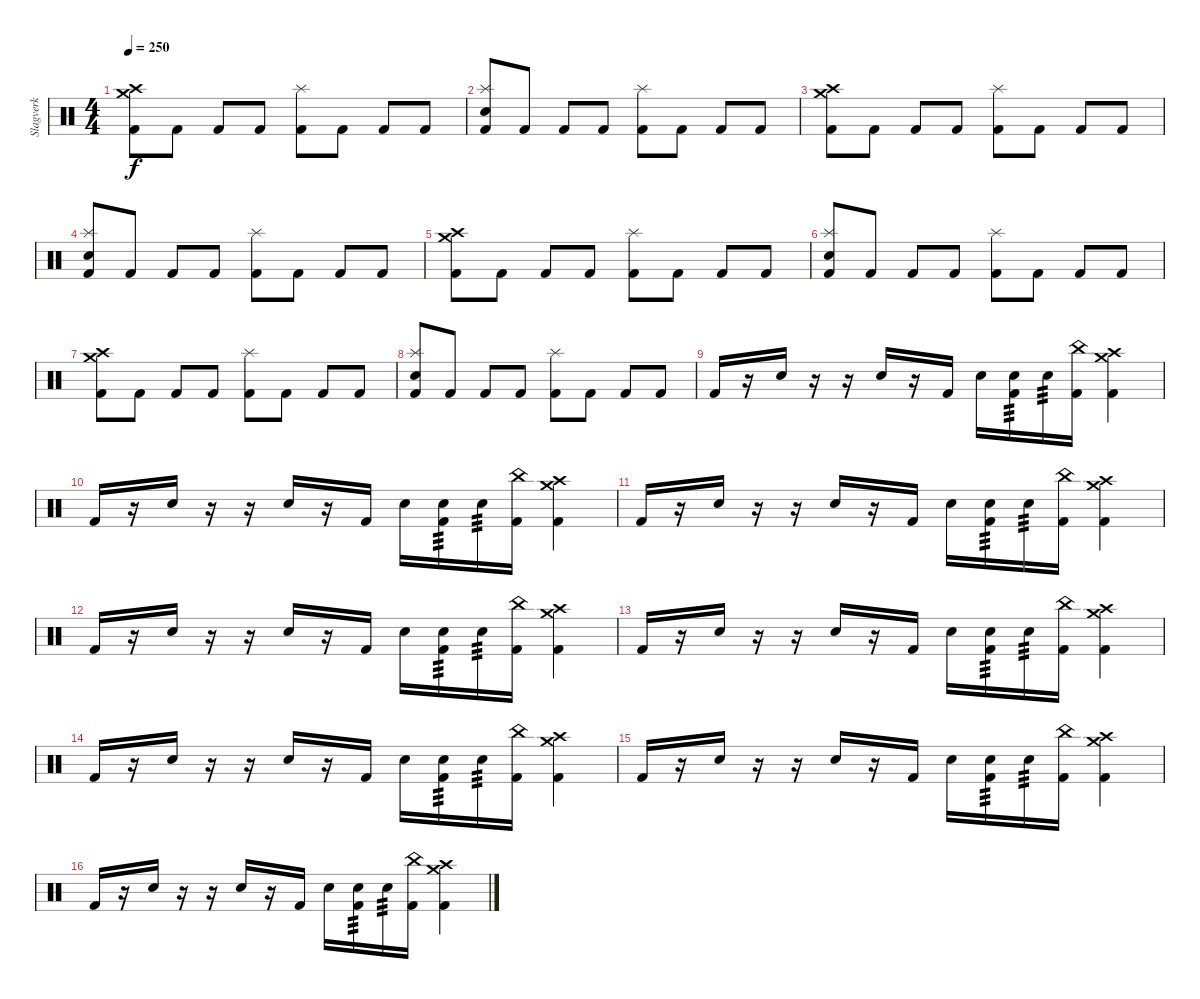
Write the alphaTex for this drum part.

\track ("Slagverk" "Slagverk") {instrument percussion}
\staff {score}
\articulation defaults
\ts (4 4)
\tempo 250
\clef neutral
\ks c
("Crash medium (hit)" "Crash high (hit)" "Kick (hit) 2").8{dy f} "Kick (hit) 2".8 "Kick (hit) 2".8 "Kick (hit) 2".8 ("Splash (hit)" "Kick (hit) 2").8 "Kick (hit) 2".8 "Kick (hit) 2".8 "Kick (hit) 2".8 |
("Electric Snare (hit)" "Splash (hit)" "Kick (hit) 2").8 "Kick (hit) 2".8 "Kick (hit) 2".8 "Kick (hit) 2".8 ("Splash (hit)" "Kick (hit) 2").8 "Kick (hit) 2".8 "Kick (hit) 2".8 "Kick (hit) 2".8 |
("Crash medium (hit)" "Crash high (hit)" "Kick (hit) 2").8 "Kick (hit) 2".8 "Kick (hit) 2".8 "Kick (hit) 2".8 ("Splash (hit)" "Kick (hit) 2").8 "Kick (hit) 2".8 "Kick (hit) 2".8 "Kick (hit) 2".8 |
("Electric Snare (hit)" "Splash (hit)" "Kick (hit) 2").8 "Kick (hit) 2".8 "Kick (hit) 2".8 "Kick (hit) 2".8 ("Splash (hit)" "Kick (hit) 2").8 "Kick (hit) 2".8 "Kick (hit) 2".8 "Kick (hit) 2".8 |
("Crash medium (hit)" "Crash high (hit)" "Kick (hit) 2").8 "Kick (hit) 2".8 "Kick (hit) 2".8 "Kick (hit) 2".8 ("Splash (hit)" "Kick (hit) 2").8 "Kick (hit) 2".8 "Kick (hit) 2".8 "Kick (hit) 2".8 |
("Electric Snare (hit)" "Splash (hit)" "Kick (hit) 2").8 "Kick (hit) 2".8 "Kick (hit) 2".8 "Kick (hit) 2".8 ("Splash (hit)" "Kick (hit) 2").8 "Kick (hit) 2".8 "Kick (hit) 2".8 "Kick (hit) 2".8 |
("Crash medium (hit)" "Crash high (hit)" "Kick (hit) 2").8 "Kick (hit) 2".8 "Kick (hit) 2".8 "Kick (hit) 2".8 ("Splash (hit)" "Kick (hit) 2").8 "Kick (hit) 2".8 "Kick (hit) 2".8 "Kick (hit) 2".8 |
("Electric Snare (hit)" "Splash (hit)" "Kick (hit) 2").8 "Kick (hit) 2".8 "Kick (hit) 2".8 "Kick (hit) 2".8 ("Splash (hit)" "Kick (hit) 2").8 "Kick (hit) 2".8 "Kick (hit) 2".8 "Kick (hit) 2".8 |
"Kick (hit) 2".16 r.16 "Electric Snare (hit)".16 r.16 r.16 "Electric Snare (hit)".16 r.16 "Kick (hit) 2".16 "Electric Snare (hit)".16 ("Electric Snare (hit)" "Kick (hit) 2").16{tp 3} "Electric Snare (hit)".16{tp 3} ("China (hit)" "Kick (hit) 2").16 ("Crash medium (hit)" "Crash high (hit)" "Kick (hit) 2").4 |
"Kick (hit) 2".16 r.16 "Electric Snare (hit)".16 r.16 r.16 "Electric Snare (hit)".16 r.16 "Kick (hit) 2".16 "Electric Snare (hit)".16 ("Electric Snare (hit)" "Kick (hit) 2").16{tp 3} "Electric Snare (hit)".16{tp 3} ("China (hit)" "Kick (hit) 2").16 ("Crash medium (hit)" "Crash high (hit)" "Kick (hit) 2").4 |
"Kick (hit) 2".16 r.16 "Electric Snare (hit)".16 r.16 r.16 "Electric Snare (hit)".16 r.16 "Kick (hit) 2".16 "Electric Snare (hit)".16 ("Electric Snare (hit)" "Kick (hit) 2").16{tp 3} "Electric Snare (hit)".16{tp 3} ("China (hit)" "Kick (hit) 2").16 ("Crash medium (hit)" "Crash high (hit)" "Kick (hit) 2").4 |
"Kick (hit) 2".16 r.16 "Electric Snare (hit)".16 r.16 r.16 "Electric Snare (hit)".16 r.16 "Kick (hit) 2".16 "Electric Snare (hit)".16 ("Electric Snare (hit)" "Kick (hit) 2").16{tp 3} "Electric Snare (hit)".16{tp 3} ("China (hit)" "Kick (hit) 2").16 ("Crash medium (hit)" "Crash high (hit)" "Kick (hit) 2").4 |
"Kick (hit) 2".16 r.16 "Electric Snare (hit)".16 r.16 r.16 "Electric Snare (hit)".16 r.16 "Kick (hit) 2".16 "Electric Snare (hit)".16 ("Electric Snare (hit)" "Kick (hit) 2").16{tp 3} "Electric Snare (hit)".16{tp 3} ("China (hit)" "Kick (hit) 2").16 ("Crash medium (hit)" "Crash high (hit)" "Kick (hit) 2").4 |
"Kick (hit) 2".16 r.16 "Electric Snare (hit)".16 r.16 r.16 "Electric Snare (hit)".16 r.16 "Kick (hit) 2".16 "Electric Snare (hit)".16 ("Electric Snare (hit)" "Kick (hit) 2").16{tp 3} "Electric Snare (hit)".16{tp 3} ("China (hit)" "Kick (hit) 2").16 ("Crash medium (hit)" "Crash high (hit)" "Kick (hit) 2").4 |
"Kick (hit) 2".16 r.16 "Electric Snare (hit)".16 r.16 r.16 "Electric Snare (hit)".16 r.16 "Kick (hit) 2".16 "Electric Snare (hit)".16 ("Electric Snare (hit)" "Kick (hit) 2").16{tp 3} "Electric Snare (hit)".16{tp 3} ("China (hit)" "Kick (hit) 2").16 ("Crash medium (hit)" "Crash high (hit)" "Kick (hit) 2").4 |
"Kick (hit) 2".16 r.16 "Electric Snare (hit)".16 r.16 r.16 "Electric Snare (hit)".16 r.16 "Kick (hit) 2".16 "Electric Snare (hit)".16 ("Electric Snare (hit)" "Kick (hit) 2").16{tp 3} "Electric Snare (hit)".16{tp 3} ("China (hit)" "Kick (hit) 2").16 ("Crash medium (hit)" "Crash high (hit)" "Kick (hit) 2").4
